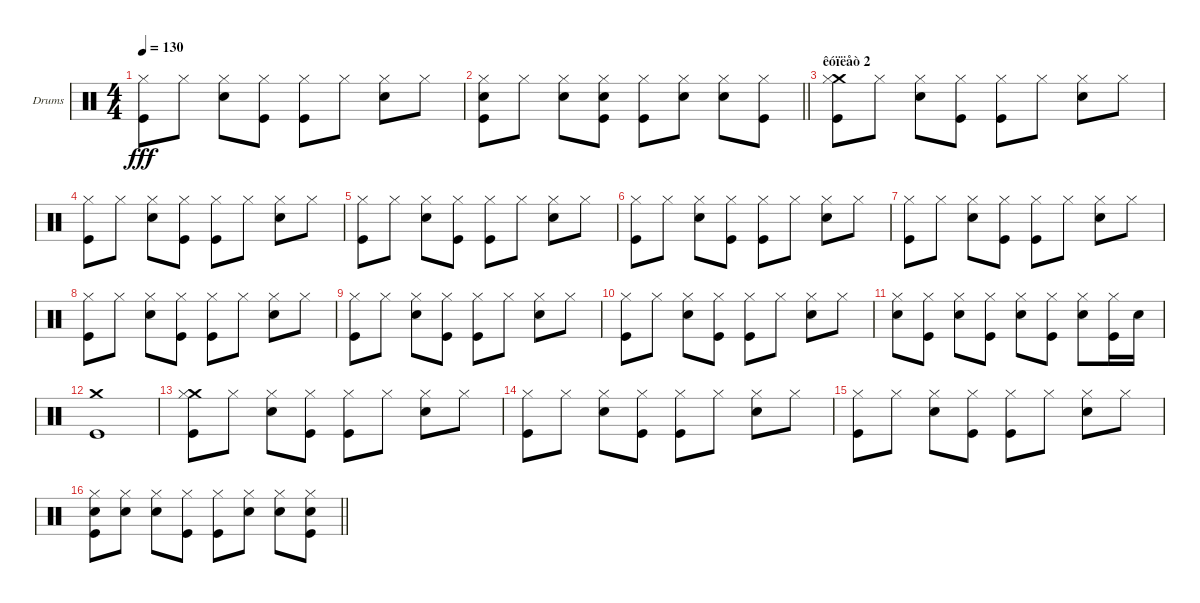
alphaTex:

\bracketExtendMode groupsimilarinstruments
\firstSystemTrackNameOrientation horizontal
\otherSystemsTrackNameOrientation horizontal
\track ("Drumkit" "Drums") {instrument percussion}
\staff {score}
\articulation defaults
\ts (4 4)
\tempo 130
\clef neutral
\ks c
("Hi-Hat (closed)" "Kick (hit)").8{dy fff} "Hi-Hat (closed)".8 ("Hi-Hat (closed)" "Snare (hit) 2").8 ("Hi-Hat (closed)" "Kick (hit)").8 ("Hi-Hat (closed)" "Kick (hit)").8 "Hi-Hat (closed)".8 ("Hi-Hat (closed)" "Snare (hit) 2").8 "Hi-Hat (closed)".8 |
\barLineRight lightlight
("Snare (hit) 2" "Hi-Hat (closed)" "Kick (hit)").8 "Hi-Hat (closed)".8 ("Hi-Hat (closed)" "Snare (hit) 2").8 ("Snare (hit) 2" "Hi-Hat (closed)" "Kick (hit)").8 ("Hi-Hat (closed)" "Kick (hit)").8 ("Snare (hit) 2" "Hi-Hat (closed)").8 ("Snare (hit) 2" "Hi-Hat (closed)").8 ("Hi-Hat (closed)" "Kick (hit)").8 |
\section ("" "êóïëåò 2")
("Crash medium (hit)" "Hi-Hat (closed)" "Kick (hit)").8 "Hi-Hat (closed)".8 ("Hi-Hat (closed)" "Snare (hit) 2").8 ("Hi-Hat (closed)" "Kick (hit)").8 ("Hi-Hat (closed)" "Kick (hit)").8 "Hi-Hat (closed)".8 ("Hi-Hat (closed)" "Snare (hit) 2").8 "Hi-Hat (closed)".8 |
("Hi-Hat (closed)" "Kick (hit)").8 "Hi-Hat (closed)".8 ("Hi-Hat (closed)" "Snare (hit) 2").8 ("Hi-Hat (closed)" "Kick (hit)").8 ("Hi-Hat (closed)" "Kick (hit)").8 "Hi-Hat (closed)".8 ("Hi-Hat (closed)" "Snare (hit) 2").8 "Hi-Hat (closed)".8 |
("Hi-Hat (closed)" "Kick (hit)").8 "Hi-Hat (closed)".8 ("Hi-Hat (closed)" "Snare (hit) 2").8 ("Hi-Hat (closed)" "Kick (hit)").8 ("Hi-Hat (closed)" "Kick (hit)").8 "Hi-Hat (closed)".8 ("Hi-Hat (closed)" "Snare (hit) 2").8 "Hi-Hat (closed)".8 |
("Hi-Hat (closed)" "Kick (hit)").8 "Hi-Hat (closed)".8 ("Hi-Hat (closed)" "Snare (hit) 2").8 ("Hi-Hat (closed)" "Kick (hit)").8 ("Hi-Hat (closed)" "Kick (hit)").8 "Hi-Hat (closed)".8 ("Hi-Hat (closed)" "Snare (hit) 2").8 "Hi-Hat (closed)".8 |
("Hi-Hat (closed)" "Kick (hit)").8 "Hi-Hat (closed)".8 ("Hi-Hat (closed)" "Snare (hit) 2").8 ("Hi-Hat (closed)" "Kick (hit)").8 ("Hi-Hat (closed)" "Kick (hit)").8 "Hi-Hat (closed)".8 ("Hi-Hat (closed)" "Snare (hit) 2").8 "Hi-Hat (closed)".8 |
("Hi-Hat (closed)" "Kick (hit)").8 "Hi-Hat (closed)".8 ("Hi-Hat (closed)" "Snare (hit) 2").8 ("Hi-Hat (closed)" "Kick (hit)").8 ("Hi-Hat (closed)" "Kick (hit)").8 "Hi-Hat (closed)".8 ("Hi-Hat (closed)" "Snare (hit) 2").8 "Hi-Hat (closed)".8 |
("Hi-Hat (closed)" "Kick (hit)").8 "Hi-Hat (closed)".8 ("Hi-Hat (closed)" "Snare (hit) 2").8 ("Hi-Hat (closed)" "Kick (hit)").8 ("Hi-Hat (closed)" "Kick (hit)").8 "Hi-Hat (closed)".8 ("Hi-Hat (closed)" "Snare (hit) 2").8 "Hi-Hat (closed)".8 |
("Hi-Hat (closed)" "Kick (hit)").8 "Hi-Hat (closed)".8 ("Hi-Hat (closed)" "Snare (hit) 2").8 ("Hi-Hat (closed)" "Kick (hit)").8 ("Hi-Hat (closed)" "Kick (hit)").8 "Hi-Hat (closed)".8 ("Hi-Hat (closed)" "Snare (hit) 2").8 "Hi-Hat (closed)".8 |
("Hi-Hat (closed)" "Snare (hit) 2").8 ("Hi-Hat (closed)" "Kick (hit)").8 ("Hi-Hat (closed)" "Snare (hit) 2").8 ("Hi-Hat (closed)" "Kick (hit)").8 ("Hi-Hat (closed)" "Snare (hit) 2").8 ("Hi-Hat (closed)" "Kick (hit)").8 ("Hi-Hat (closed)" "Snare (hit) 2").8 ("Hi-Hat (closed)" "Kick (hit)").16 "Snare (hit) 2".16 |
("Crash medium (hit)" "Kick (hit)").1 |
("Crash medium (hit)" "Hi-Hat (closed)" "Kick (hit)").8 "Hi-Hat (closed)".8 ("Hi-Hat (closed)" "Snare (hit) 2").8 ("Hi-Hat (closed)" "Kick (hit)").8 ("Hi-Hat (closed)" "Kick (hit)").8 "Hi-Hat (closed)".8 ("Hi-Hat (closed)" "Snare (hit) 2").8 "Hi-Hat (closed)".8 |
("Hi-Hat (closed)" "Kick (hit)").8 "Hi-Hat (closed)".8 ("Hi-Hat (closed)" "Snare (hit) 2").8 ("Hi-Hat (closed)" "Kick (hit)").8 ("Hi-Hat (closed)" "Kick (hit)").8 "Hi-Hat (closed)".8 ("Hi-Hat (closed)" "Snare (hit) 2").8 "Hi-Hat (closed)".8 |
("Hi-Hat (closed)" "Kick (hit)").8 "Hi-Hat (closed)".8 ("Hi-Hat (closed)" "Snare (hit) 2").8 ("Hi-Hat (closed)" "Kick (hit)").8 ("Hi-Hat (closed)" "Kick (hit)").8 "Hi-Hat (closed)".8 ("Hi-Hat (closed)" "Snare (hit) 2").8 "Hi-Hat (closed)".8 |
\barLineRight lightlight
("Snare (hit) 2" "Hi-Hat (closed)" "Kick (hit)").8 ("Snare (hit) 2" "Hi-Hat (closed)").8 ("Hi-Hat (closed)" "Snare (hit) 2").8 ("Hi-Hat (closed)" "Kick (hit)").8 ("Hi-Hat (closed)" "Kick (hit)").8 ("Snare (hit) 2" "Hi-Hat (closed)").8 ("Snare (hit) 2" "Hi-Hat (closed)").8 ("Snare (hit) 2" "Hi-Hat (closed)" "Kick (hit)").8
